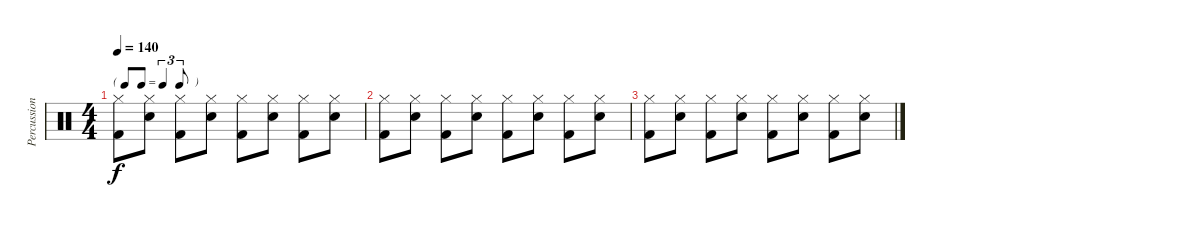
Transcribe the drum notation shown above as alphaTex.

\track ("Percussion" "Percussion") {instrument percussion}
\staff {score}
\articulation defaults
\ts (4 4)
\tf triplet8th
\tempo 140
\clef neutral
\ks c
("Hi-Hat (closed)" "Kick (hit) 2").8{dy f} ("Hi-Hat (closed)" "Snare (hit) 2").8 ("Hi-Hat (closed)" "Kick (hit) 2").8 ("Hi-Hat (closed)" "Snare (hit) 2").8 ("Hi-Hat (closed)" "Kick (hit) 2").8 ("Hi-Hat (closed)" "Snare (hit) 2").8 ("Hi-Hat (closed)" "Kick (hit) 2").8 ("Hi-Hat (closed)" "Snare (hit) 2").8 |
("Hi-Hat (closed)" "Kick (hit) 2").8 ("Hi-Hat (closed)" "Snare (hit) 2").8 ("Hi-Hat (closed)" "Kick (hit) 2").8 ("Hi-Hat (closed)" "Snare (hit) 2").8 ("Hi-Hat (closed)" "Kick (hit) 2").8 ("Hi-Hat (closed)" "Snare (hit) 2").8 ("Hi-Hat (closed)" "Kick (hit) 2").8 ("Hi-Hat (closed)" "Snare (hit) 2").8 |
("Hi-Hat (closed)" "Kick (hit) 2").8 ("Hi-Hat (closed)" "Snare (hit) 2").8 ("Hi-Hat (closed)" "Kick (hit) 2").8 ("Hi-Hat (closed)" "Snare (hit) 2").8 ("Hi-Hat (closed)" "Kick (hit) 2").8 ("Hi-Hat (closed)" "Snare (hit) 2").8 ("Hi-Hat (closed)" "Kick (hit) 2").8 ("Hi-Hat (closed)" "Snare (hit) 2").8
